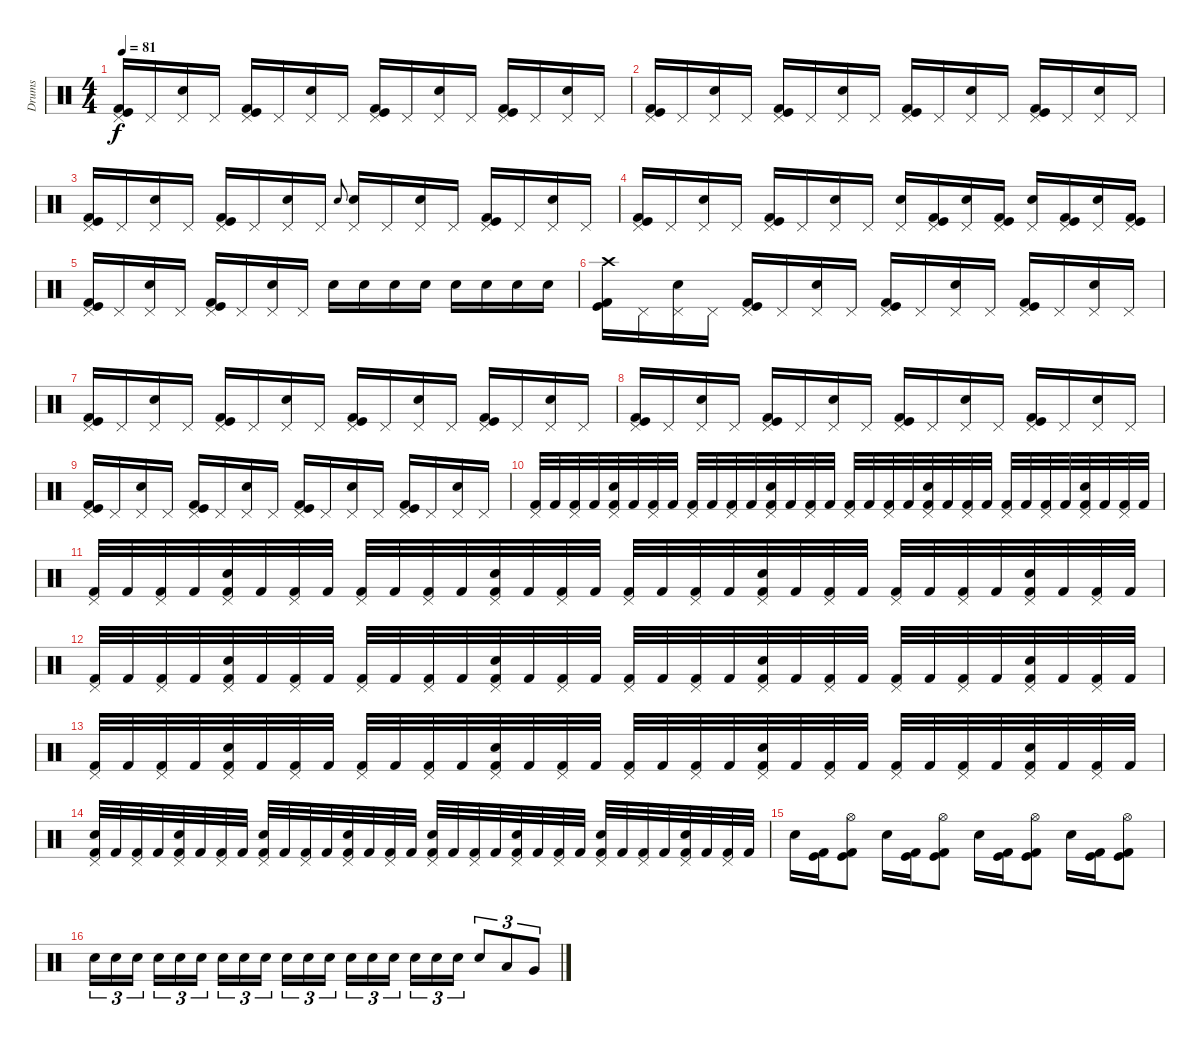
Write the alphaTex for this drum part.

\track ("Drums" "Drums") {instrument percussion}
\staff {score}
\articulation defaults
\ts (4 4)
\tempo 81
\clef neutral
\ks c
("Pedal Hi-Hat (hit)" "Kick (hit)" "Kick (hit) 2").16{dy f} "Pedal Hi-Hat (hit)".16 ("Pedal Hi-Hat (hit)" "Electric Snare (hit)").16 "Pedal Hi-Hat (hit)".16 ("Pedal Hi-Hat (hit)" "Kick (hit)" "Kick (hit) 2").16 "Pedal Hi-Hat (hit)".16 ("Pedal Hi-Hat (hit)" "Electric Snare (hit)").16 "Pedal Hi-Hat (hit)".16 ("Pedal Hi-Hat (hit)" "Kick (hit)" "Kick (hit) 2").16 "Pedal Hi-Hat (hit)".16 ("Pedal Hi-Hat (hit)" "Electric Snare (hit)").16 "Pedal Hi-Hat (hit)".16 ("Pedal Hi-Hat (hit)" "Kick (hit)" "Kick (hit) 2").16 "Pedal Hi-Hat (hit)".16 ("Pedal Hi-Hat (hit)" "Electric Snare (hit)").16 "Pedal Hi-Hat (hit)".16 |
("Pedal Hi-Hat (hit)" "Kick (hit)" "Kick (hit) 2").16 "Pedal Hi-Hat (hit)".16 ("Pedal Hi-Hat (hit)" "Electric Snare (hit)").16 "Pedal Hi-Hat (hit)".16 ("Pedal Hi-Hat (hit)" "Kick (hit)" "Kick (hit) 2").16 "Pedal Hi-Hat (hit)".16 ("Pedal Hi-Hat (hit)" "Electric Snare (hit)").16 "Pedal Hi-Hat (hit)".16 ("Pedal Hi-Hat (hit)" "Kick (hit)" "Kick (hit) 2").16 "Pedal Hi-Hat (hit)".16 ("Pedal Hi-Hat (hit)" "Electric Snare (hit)").16 "Pedal Hi-Hat (hit)".16 ("Pedal Hi-Hat (hit)" "Kick (hit)" "Kick (hit) 2").16 "Pedal Hi-Hat (hit)".16 ("Pedal Hi-Hat (hit)" "Electric Snare (hit)").16 "Pedal Hi-Hat (hit)".16 |
("Pedal Hi-Hat (hit)" "Kick (hit)" "Kick (hit) 2").16 "Pedal Hi-Hat (hit)".16 ("Pedal Hi-Hat (hit)" "Electric Snare (hit)").16 "Pedal Hi-Hat (hit)".16 ("Pedal Hi-Hat (hit)" "Kick (hit)" "Kick (hit) 2").16 "Pedal Hi-Hat (hit)".16 ("Pedal Hi-Hat (hit)" "Electric Snare (hit)").16 "Pedal Hi-Hat (hit)".16 "Electric Snare (hit)".8{gr onbeat} ("Pedal Hi-Hat (hit)" "Electric Snare (hit)").16 "Pedal Hi-Hat (hit)".16 ("Pedal Hi-Hat (hit)" "Electric Snare (hit)").16 "Pedal Hi-Hat (hit)".16 ("Pedal Hi-Hat (hit)" "Kick (hit)" "Kick (hit) 2").16 "Pedal Hi-Hat (hit)".16 ("Pedal Hi-Hat (hit)" "Electric Snare (hit)").16 "Pedal Hi-Hat (hit)".16 |
("Pedal Hi-Hat (hit)" "Kick (hit)" "Kick (hit) 2").16 "Pedal Hi-Hat (hit)".16 ("Pedal Hi-Hat (hit)" "Electric Snare (hit)").16 "Pedal Hi-Hat (hit)".16 ("Pedal Hi-Hat (hit)" "Kick (hit)" "Kick (hit) 2").16 "Pedal Hi-Hat (hit)".16 ("Pedal Hi-Hat (hit)" "Electric Snare (hit)").16 "Pedal Hi-Hat (hit)".16 ("Pedal Hi-Hat (hit)" "Electric Snare (hit)").16 ("Pedal Hi-Hat (hit)" "Kick (hit)" "Kick (hit) 2").16 ("Pedal Hi-Hat (hit)" "Electric Snare (hit)").16 ("Pedal Hi-Hat (hit)" "Kick (hit)" "Kick (hit) 2").16 ("Pedal Hi-Hat (hit)" "Electric Snare (hit)").16 ("Pedal Hi-Hat (hit)" "Kick (hit)" "Kick (hit) 2").16 ("Pedal Hi-Hat (hit)" "Electric Snare (hit)").16 ("Pedal Hi-Hat (hit)" "Kick (hit)" "Kick (hit) 2").16 |
("Pedal Hi-Hat (hit)" "Kick (hit)" "Kick (hit) 2").16 "Pedal Hi-Hat (hit)".16 ("Pedal Hi-Hat (hit)" "Electric Snare (hit)").16 "Pedal Hi-Hat (hit)".16 ("Pedal Hi-Hat (hit)" "Kick (hit)" "Kick (hit) 2").16 "Pedal Hi-Hat (hit)".16 ("Pedal Hi-Hat (hit)" "Electric Snare (hit)").16 "Pedal Hi-Hat (hit)".16 "Electric Snare (hit)".16 "Electric Snare (hit)".16 "Electric Snare (hit)".16 "Electric Snare (hit)".16 "Electric Snare (hit)".16 "Electric Snare (hit)".16 "Electric Snare (hit)".16 "Electric Snare (hit)".16 |
("Crash high (hit)" "Kick (hit)" "Kick (hit) 2").16 "Pedal Hi-Hat (hit)".16 ("Pedal Hi-Hat (hit)" "Electric Snare (hit)").16 "Pedal Hi-Hat (hit)".16 ("Pedal Hi-Hat (hit)" "Kick (hit)" "Kick (hit) 2").16 "Pedal Hi-Hat (hit)".16 ("Pedal Hi-Hat (hit)" "Electric Snare (hit)").16 "Pedal Hi-Hat (hit)".16 ("Pedal Hi-Hat (hit)" "Kick (hit)" "Kick (hit) 2").16 "Pedal Hi-Hat (hit)".16 ("Pedal Hi-Hat (hit)" "Electric Snare (hit)").16 "Pedal Hi-Hat (hit)".16 ("Pedal Hi-Hat (hit)" "Kick (hit)" "Kick (hit) 2").16 "Pedal Hi-Hat (hit)".16 ("Pedal Hi-Hat (hit)" "Electric Snare (hit)").16 "Pedal Hi-Hat (hit)".16 |
("Pedal Hi-Hat (hit)" "Kick (hit)" "Kick (hit) 2").16 "Pedal Hi-Hat (hit)".16 ("Pedal Hi-Hat (hit)" "Electric Snare (hit)").16 "Pedal Hi-Hat (hit)".16 ("Pedal Hi-Hat (hit)" "Kick (hit)" "Kick (hit) 2").16 "Pedal Hi-Hat (hit)".16 ("Pedal Hi-Hat (hit)" "Electric Snare (hit)").16 "Pedal Hi-Hat (hit)".16 ("Pedal Hi-Hat (hit)" "Kick (hit)" "Kick (hit) 2").16 "Pedal Hi-Hat (hit)".16 ("Pedal Hi-Hat (hit)" "Electric Snare (hit)").16 "Pedal Hi-Hat (hit)".16 ("Pedal Hi-Hat (hit)" "Kick (hit)" "Kick (hit) 2").16 "Pedal Hi-Hat (hit)".16 ("Pedal Hi-Hat (hit)" "Electric Snare (hit)").16 "Pedal Hi-Hat (hit)".16 |
("Pedal Hi-Hat (hit)" "Kick (hit)" "Kick (hit) 2").16 "Pedal Hi-Hat (hit)".16 ("Pedal Hi-Hat (hit)" "Electric Snare (hit)").16 "Pedal Hi-Hat (hit)".16 ("Pedal Hi-Hat (hit)" "Kick (hit)" "Kick (hit) 2").16 "Pedal Hi-Hat (hit)".16 ("Pedal Hi-Hat (hit)" "Electric Snare (hit)").16 "Pedal Hi-Hat (hit)".16 ("Pedal Hi-Hat (hit)" "Kick (hit)" "Kick (hit) 2").16 "Pedal Hi-Hat (hit)".16 ("Pedal Hi-Hat (hit)" "Electric Snare (hit)").16 "Pedal Hi-Hat (hit)".16 ("Pedal Hi-Hat (hit)" "Kick (hit)" "Kick (hit) 2").16 "Pedal Hi-Hat (hit)".16 ("Pedal Hi-Hat (hit)" "Electric Snare (hit)").16 "Pedal Hi-Hat (hit)".16 |
("Pedal Hi-Hat (hit)" "Kick (hit)" "Kick (hit) 2").16 "Pedal Hi-Hat (hit)".16 ("Pedal Hi-Hat (hit)" "Electric Snare (hit)").16 "Pedal Hi-Hat (hit)".16 ("Pedal Hi-Hat (hit)" "Kick (hit)" "Kick (hit) 2").16 "Pedal Hi-Hat (hit)".16 ("Pedal Hi-Hat (hit)" "Electric Snare (hit)").16 "Pedal Hi-Hat (hit)".16 ("Pedal Hi-Hat (hit)" "Kick (hit)" "Kick (hit) 2").16 "Pedal Hi-Hat (hit)".16 ("Pedal Hi-Hat (hit)" "Electric Snare (hit)").16 "Pedal Hi-Hat (hit)".16 ("Pedal Hi-Hat (hit)" "Kick (hit)" "Kick (hit) 2").16 "Pedal Hi-Hat (hit)".16 ("Pedal Hi-Hat (hit)" "Electric Snare (hit)").16 "Pedal Hi-Hat (hit)".16 |
("Pedal Hi-Hat (hit)" "Kick (hit) 2").32 "Kick (hit) 2".32 ("Pedal Hi-Hat (hit)" "Kick (hit) 2").32 "Kick (hit) 2".32 ("Pedal Hi-Hat (hit)" "Electric Snare (hit)" "Kick (hit) 2").32 "Kick (hit) 2".32 ("Pedal Hi-Hat (hit)" "Kick (hit) 2").32 "Kick (hit) 2".32 ("Pedal Hi-Hat (hit)" "Kick (hit) 2").32 "Kick (hit) 2".32 ("Pedal Hi-Hat (hit)" "Kick (hit) 2").32 "Kick (hit) 2".32 ("Pedal Hi-Hat (hit)" "Electric Snare (hit)" "Kick (hit) 2").32 "Kick (hit) 2".32 ("Pedal Hi-Hat (hit)" "Kick (hit) 2").32 "Kick (hit) 2".32 ("Pedal Hi-Hat (hit)" "Kick (hit) 2").32 "Kick (hit) 2".32 ("Pedal Hi-Hat (hit)" "Kick (hit) 2").32 "Kick (hit) 2".32 ("Pedal Hi-Hat (hit)" "Electric Snare (hit)" "Kick (hit) 2").32 "Kick (hit) 2".32 ("Pedal Hi-Hat (hit)" "Kick (hit) 2").32 "Kick (hit) 2".32 ("Pedal Hi-Hat (hit)" "Kick (hit) 2").32 "Kick (hit) 2".32 ("Pedal Hi-Hat (hit)" "Kick (hit) 2").32 "Kick (hit) 2".32 ("Pedal Hi-Hat (hit)" "Electric Snare (hit)" "Kick (hit) 2").32 "Kick (hit) 2".32 ("Pedal Hi-Hat (hit)" "Kick (hit) 2").32 "Kick (hit) 2".32 |
("Pedal Hi-Hat (hit)" "Kick (hit) 2").32 "Kick (hit) 2".32 ("Pedal Hi-Hat (hit)" "Kick (hit) 2").32 "Kick (hit) 2".32 ("Pedal Hi-Hat (hit)" "Electric Snare (hit)" "Kick (hit) 2").32 "Kick (hit) 2".32 ("Pedal Hi-Hat (hit)" "Kick (hit) 2").32 "Kick (hit) 2".32 ("Pedal Hi-Hat (hit)" "Kick (hit) 2").32 "Kick (hit) 2".32 ("Pedal Hi-Hat (hit)" "Kick (hit) 2").32 "Kick (hit) 2".32 ("Pedal Hi-Hat (hit)" "Electric Snare (hit)" "Kick (hit) 2").32 "Kick (hit) 2".32 ("Pedal Hi-Hat (hit)" "Kick (hit) 2").32 "Kick (hit) 2".32 ("Pedal Hi-Hat (hit)" "Kick (hit) 2").32 "Kick (hit) 2".32 ("Pedal Hi-Hat (hit)" "Kick (hit) 2").32 "Kick (hit) 2".32 ("Pedal Hi-Hat (hit)" "Electric Snare (hit)" "Kick (hit) 2").32 "Kick (hit) 2".32 ("Pedal Hi-Hat (hit)" "Kick (hit) 2").32 "Kick (hit) 2".32 ("Pedal Hi-Hat (hit)" "Kick (hit) 2").32 "Kick (hit) 2".32 ("Pedal Hi-Hat (hit)" "Kick (hit) 2").32 "Kick (hit) 2".32 ("Pedal Hi-Hat (hit)" "Electric Snare (hit)" "Kick (hit) 2").32 "Kick (hit) 2".32 ("Pedal Hi-Hat (hit)" "Kick (hit) 2").32 "Kick (hit) 2".32 |
("Pedal Hi-Hat (hit)" "Kick (hit) 2").32 "Kick (hit) 2".32 ("Pedal Hi-Hat (hit)" "Kick (hit) 2").32 "Kick (hit) 2".32 ("Pedal Hi-Hat (hit)" "Electric Snare (hit)" "Kick (hit) 2").32 "Kick (hit) 2".32 ("Pedal Hi-Hat (hit)" "Kick (hit) 2").32 "Kick (hit) 2".32 ("Pedal Hi-Hat (hit)" "Kick (hit) 2").32 "Kick (hit) 2".32 ("Pedal Hi-Hat (hit)" "Kick (hit) 2").32 "Kick (hit) 2".32 ("Pedal Hi-Hat (hit)" "Electric Snare (hit)" "Kick (hit) 2").32 "Kick (hit) 2".32 ("Pedal Hi-Hat (hit)" "Kick (hit) 2").32 "Kick (hit) 2".32 ("Pedal Hi-Hat (hit)" "Kick (hit) 2").32 "Kick (hit) 2".32 ("Pedal Hi-Hat (hit)" "Kick (hit) 2").32 "Kick (hit) 2".32 ("Pedal Hi-Hat (hit)" "Electric Snare (hit)" "Kick (hit) 2").32 "Kick (hit) 2".32 ("Pedal Hi-Hat (hit)" "Kick (hit) 2").32 "Kick (hit) 2".32 ("Pedal Hi-Hat (hit)" "Kick (hit) 2").32 "Kick (hit) 2".32 ("Pedal Hi-Hat (hit)" "Kick (hit) 2").32 "Kick (hit) 2".32 ("Pedal Hi-Hat (hit)" "Electric Snare (hit)" "Kick (hit) 2").32 "Kick (hit) 2".32 ("Pedal Hi-Hat (hit)" "Kick (hit) 2").32 "Kick (hit) 2".32 |
("Pedal Hi-Hat (hit)" "Kick (hit) 2").32 "Kick (hit) 2".32 ("Pedal Hi-Hat (hit)" "Kick (hit) 2").32 "Kick (hit) 2".32 ("Pedal Hi-Hat (hit)" "Electric Snare (hit)" "Kick (hit) 2").32 "Kick (hit) 2".32 ("Pedal Hi-Hat (hit)" "Kick (hit) 2").32 "Kick (hit) 2".32 ("Pedal Hi-Hat (hit)" "Kick (hit) 2").32 "Kick (hit) 2".32 ("Pedal Hi-Hat (hit)" "Kick (hit) 2").32 "Kick (hit) 2".32 ("Pedal Hi-Hat (hit)" "Electric Snare (hit)" "Kick (hit) 2").32 "Kick (hit) 2".32 ("Pedal Hi-Hat (hit)" "Kick (hit) 2").32 "Kick (hit) 2".32 ("Pedal Hi-Hat (hit)" "Kick (hit) 2").32 "Kick (hit) 2".32 ("Pedal Hi-Hat (hit)" "Kick (hit) 2").32 "Kick (hit) 2".32 ("Pedal Hi-Hat (hit)" "Electric Snare (hit)" "Kick (hit) 2").32 "Kick (hit) 2".32 ("Pedal Hi-Hat (hit)" "Kick (hit) 2").32 "Kick (hit) 2".32 ("Pedal Hi-Hat (hit)" "Kick (hit) 2").32 "Kick (hit) 2".32 ("Pedal Hi-Hat (hit)" "Kick (hit) 2").32 "Kick (hit) 2".32 ("Pedal Hi-Hat (hit)" "Electric Snare (hit)" "Kick (hit) 2").32 "Kick (hit) 2".32 ("Pedal Hi-Hat (hit)" "Kick (hit) 2").32 "Kick (hit) 2".32 |
("Pedal Hi-Hat (hit)" "Electric Snare (hit)" "Kick (hit) 2").32 "Kick (hit) 2".32 ("Pedal Hi-Hat (hit)" "Kick (hit) 2").32 "Kick (hit) 2".32 ("Pedal Hi-Hat (hit)" "Electric Snare (hit)" "Kick (hit) 2").32 "Kick (hit) 2".32 ("Pedal Hi-Hat (hit)" "Kick (hit) 2").32 "Kick (hit) 2".32 ("Pedal Hi-Hat (hit)" "Electric Snare (hit)" "Kick (hit) 2").32 "Kick (hit) 2".32 ("Pedal Hi-Hat (hit)" "Kick (hit) 2").32 "Kick (hit) 2".32 ("Pedal Hi-Hat (hit)" "Electric Snare (hit)" "Kick (hit) 2").32 "Kick (hit) 2".32 ("Pedal Hi-Hat (hit)" "Kick (hit) 2").32 "Kick (hit) 2".32 ("Pedal Hi-Hat (hit)" "Electric Snare (hit)" "Kick (hit) 2").32 "Kick (hit) 2".32 ("Pedal Hi-Hat (hit)" "Kick (hit) 2").32 "Kick (hit) 2".32 ("Pedal Hi-Hat (hit)" "Electric Snare (hit)" "Kick (hit) 2").32 "Kick (hit) 2".32 ("Pedal Hi-Hat (hit)" "Kick (hit) 2").32 "Kick (hit) 2".32 ("Pedal Hi-Hat (hit)" "Electric Snare (hit)" "Kick (hit) 2").32 "Kick (hit) 2".32 ("Pedal Hi-Hat (hit)" "Kick (hit) 2").32 "Kick (hit) 2".32 ("Pedal Hi-Hat (hit)" "Electric Snare (hit)" "Kick (hit) 2").32 "Kick (hit) 2".32 ("Pedal Hi-Hat (hit)" "Kick (hit) 2").32 "Kick (hit) 2".32 |
"Electric Snare (hit)".16 ("Kick (hit)" "Kick (hit) 2").16 ("Hi-Hat (open)" "Kick (hit)" "Kick (hit) 2").8 "Electric Snare (hit)".16 ("Kick (hit)" "Kick (hit) 2").16 ("Hi-Hat (open)" "Kick (hit)" "Kick (hit) 2").8 "Electric Snare (hit)".16 ("Kick (hit)" "Kick (hit) 2").16 ("Hi-Hat (open)" "Kick (hit)" "Kick (hit) 2").8 "Electric Snare (hit)".16 ("Kick (hit)" "Kick (hit) 2").16 ("Hi-Hat (open)" "Kick (hit)" "Kick (hit) 2").8 |
"Electric Snare (hit)".16{tu (3 2)} "Electric Snare (hit)".16{tu (3 2)} "Electric Snare (hit)".16{tu (3 2) beam splitsecondary} "Electric Snare (hit)".16{tu (3 2)} "Electric Snare (hit)".16{tu (3 2)} "Electric Snare (hit)".16{tu (3 2)} "Electric Snare (hit)".16{tu (3 2)} "Electric Snare (hit)".16{tu (3 2)} "Electric Snare (hit)".16{tu (3 2) beam splitsecondary} "Electric Snare (hit)".16{tu (3 2)} "Electric Snare (hit)".16{tu (3 2)} "Electric Snare (hit)".16{tu (3 2)} "Electric Snare (hit)".16{tu (3 2)} "Electric Snare (hit)".16{tu (3 2)} "Electric Snare (hit)".16{tu (3 2) beam splitsecondary} "Electric Snare (hit)".16{tu (3 2)} "Electric Snare (hit)".16{tu (3 2)} "Electric Snare (hit)".16{tu (3 2)} "Electric Snare (hit)".8{tu (3 2)} "Low Tom (hit)".8{tu (3 2)} "Very Low Tom (hit)".8{tu (3 2)}
